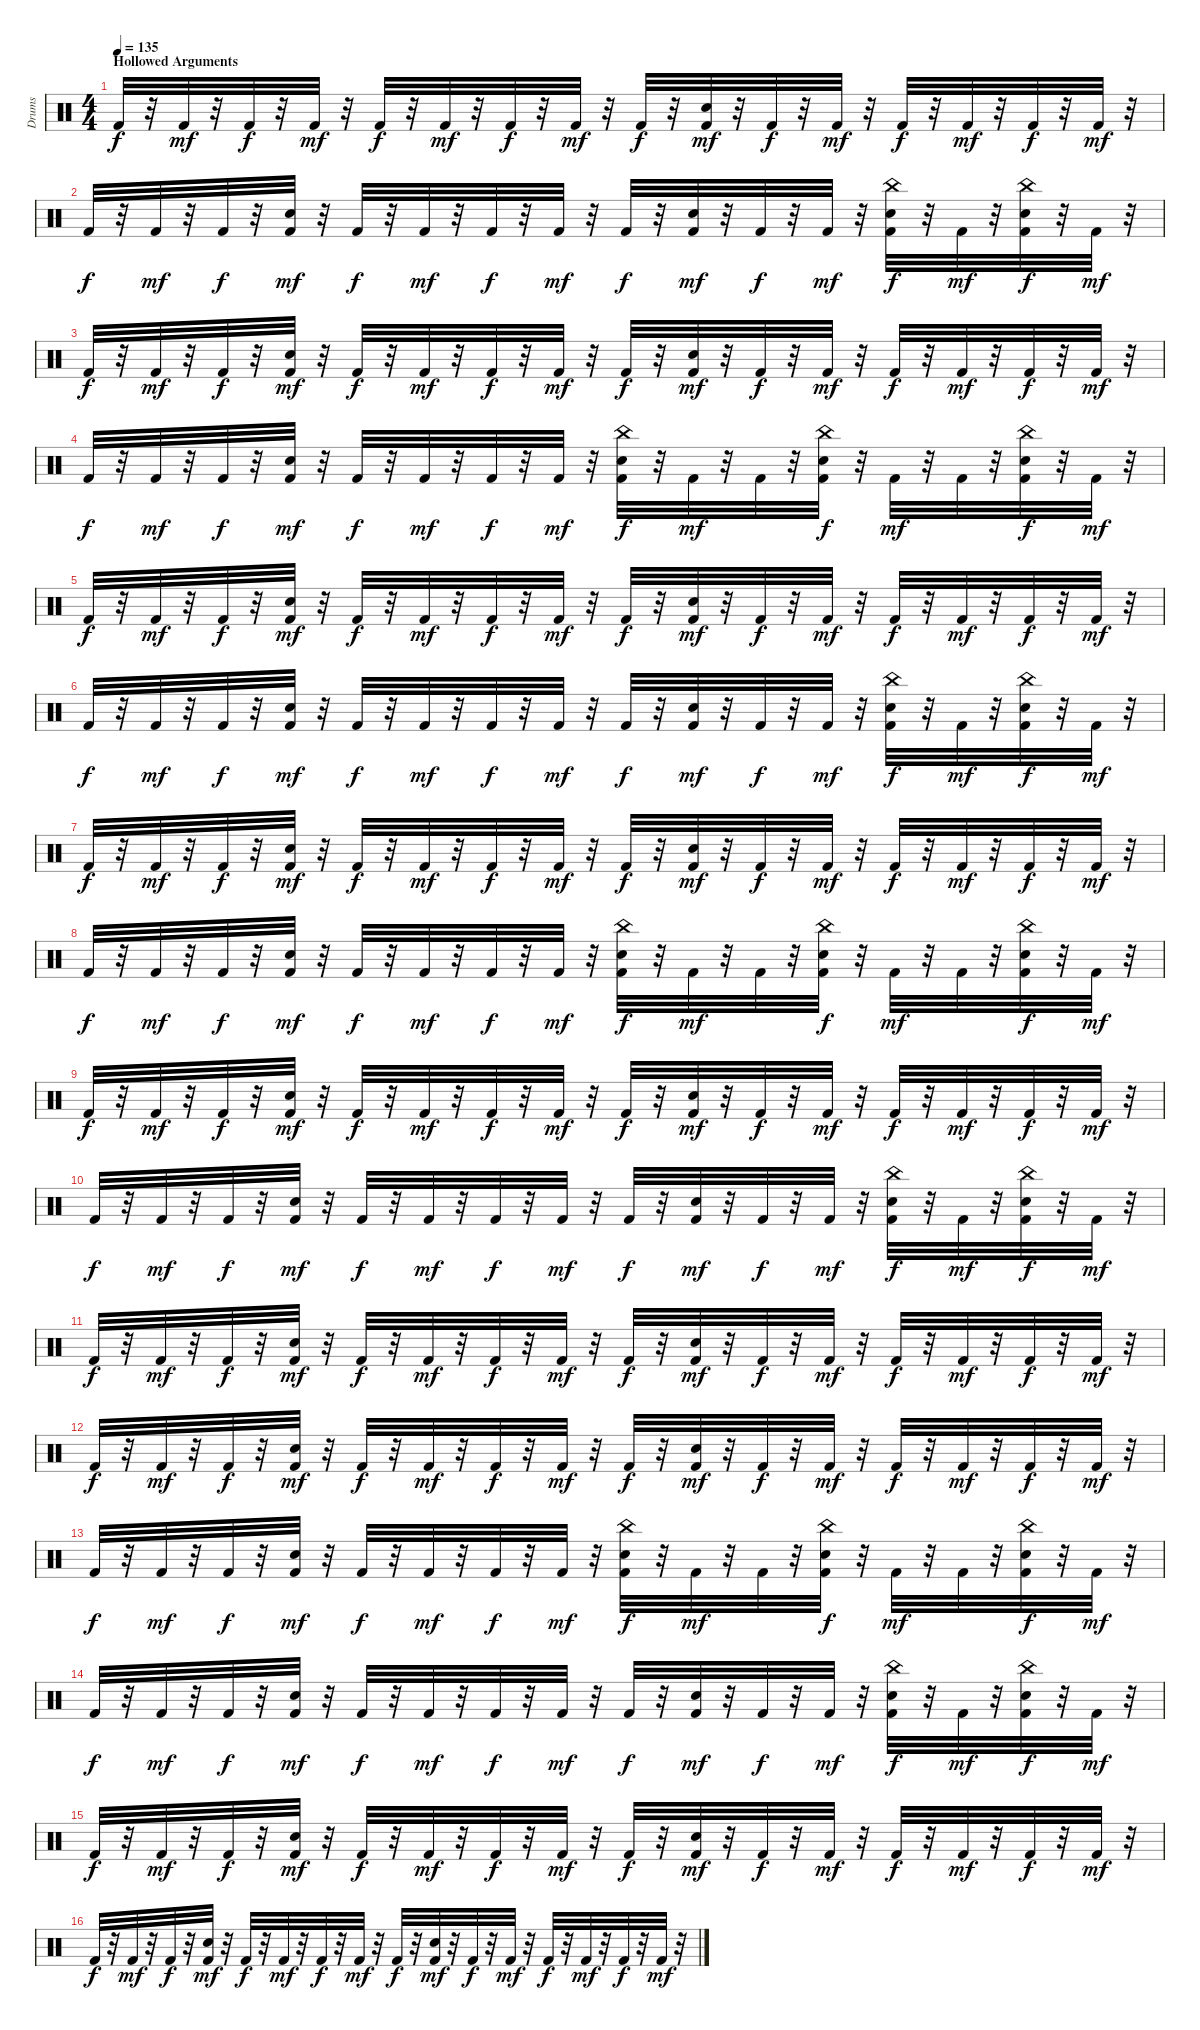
\track ("Drums" "Drums") {instrument percussion}
\staff {score}
\articulation defaults
\ts (4 4)
\section ("" "Hollowed Arguments")
\tempo 135
\clef neutral
\ks c "Kick (hit) 2".32{dy f}
r.32 "Kick (hit) 2".32{dy mf} r.32 "Kick (hit) 2".32{dy f} r.32 "Kick (hit) 2".32{dy mf} r.32 "Kick (hit) 2".32{dy f} r.32 "Kick (hit) 2".32{dy mf} r.32 "Kick (hit) 2".32{dy f} r.32 "Kick (hit) 2".32{dy mf} r.32 "Kick (hit) 2".32{dy f} r.32 ("Snare (hit) 2" "Kick (hit) 2").32{dy mf} r.32 "Kick (hit) 2".32{dy f} r.32 "Kick (hit) 2".32{dy mf} r.32 "Kick (hit) 2".32{dy f} r.32 "Kick (hit) 2".32{dy mf} r.32 "Kick (hit) 2".32{dy f} r.32 "Kick (hit) 2".32{dy mf} r.32 |
"Kick (hit) 2".32{dy f} r.32 "Kick (hit) 2".32{dy mf} r.32 "Kick (hit) 2".32{dy f} r.32 ("Snare (hit) 2" "Kick (hit) 2").32{dy mf} r.32 "Kick (hit) 2".32{dy f} r.32 "Kick (hit) 2".32{dy mf} r.32 "Kick (hit) 2".32{dy f} r.32 "Kick (hit) 2".32{dy mf} r.32 "Kick (hit) 2".32{dy f} r.32 ("Snare (hit) 2" "Kick (hit) 2").32{dy mf} r.32 "Kick (hit) 2".32{dy f} r.32 "Kick (hit) 2".32{dy mf} r.32 ("Kick (hit) 2" "China (hit)" "Snare (hit) 2").32{dy f} r.32 "Kick (hit) 2".32{dy mf} r.32 ("Kick (hit) 2" "China (hit)" "Snare (hit) 2").32{dy f} r.32 "Kick (hit) 2".32{dy mf} r.32 |
"Kick (hit) 2".32{dy f} r.32 "Kick (hit) 2".32{dy mf} r.32 "Kick (hit) 2".32{dy f} r.32 ("Snare (hit) 2" "Kick (hit) 2").32{dy mf} r.32 "Kick (hit) 2".32{dy f} r.32 "Kick (hit) 2".32{dy mf} r.32 "Kick (hit) 2".32{dy f} r.32 "Kick (hit) 2".32{dy mf} r.32 "Kick (hit) 2".32{dy f} r.32 ("Snare (hit) 2" "Kick (hit) 2").32{dy mf} r.32 "Kick (hit) 2".32{dy f} r.32 "Kick (hit) 2".32{dy mf} r.32 "Kick (hit) 2".32{dy f} r.32 "Kick (hit) 2".32{dy mf} r.32 "Kick (hit) 2".32{dy f} r.32 "Kick (hit) 2".32{dy mf} r.32 |
"Kick (hit) 2".32{dy f} r.32 "Kick (hit) 2".32{dy mf} r.32 "Kick (hit) 2".32{dy f} r.32 ("Snare (hit) 2" "Kick (hit) 2").32{dy mf} r.32 "Kick (hit) 2".32{dy f} r.32 "Kick (hit) 2".32{dy mf} r.32 "Kick (hit) 2".32{dy f} r.32 "Kick (hit) 2".32{dy mf} r.32 ("China (hit)" "Kick (hit) 2" "Snare (hit) 2").32{dy f} r.32 "Kick (hit) 2".32{dy mf} r.32 "Kick (hit) 2".32 r.32 ("China (hit)" "Kick (hit) 2" "Snare (hit) 2").32{dy f} r.32 "Kick (hit) 2".32{dy mf} r.32 "Kick (hit) 2".32 r.32 ("China (hit)" "Kick (hit) 2" "Snare (hit) 2").32{dy f} r.32 "Kick (hit) 2".32{dy mf} r.32 |
"Kick (hit) 2".32{dy f} r.32 "Kick (hit) 2".32{dy mf} r.32 "Kick (hit) 2".32{dy f} r.32 ("Snare (hit) 2" "Kick (hit) 2").32{dy mf} r.32 "Kick (hit) 2".32{dy f} r.32 "Kick (hit) 2".32{dy mf} r.32 "Kick (hit) 2".32{dy f} r.32 "Kick (hit) 2".32{dy mf} r.32 "Kick (hit) 2".32{dy f} r.32 ("Snare (hit) 2" "Kick (hit) 2").32{dy mf} r.32 "Kick (hit) 2".32{dy f} r.32 "Kick (hit) 2".32{dy mf} r.32 "Kick (hit) 2".32{dy f} r.32 "Kick (hit) 2".32{dy mf} r.32 "Kick (hit) 2".32{dy f} r.32 "Kick (hit) 2".32{dy mf} r.32 |
"Kick (hit) 2".32{dy f} r.32 "Kick (hit) 2".32{dy mf} r.32 "Kick (hit) 2".32{dy f} r.32 ("Snare (hit) 2" "Kick (hit) 2").32{dy mf} r.32 "Kick (hit) 2".32{dy f} r.32 "Kick (hit) 2".32{dy mf} r.32 "Kick (hit) 2".32{dy f} r.32 "Kick (hit) 2".32{dy mf} r.32 "Kick (hit) 2".32{dy f} r.32 ("Snare (hit) 2" "Kick (hit) 2").32{dy mf} r.32 "Kick (hit) 2".32{dy f} r.32 "Kick (hit) 2".32{dy mf} r.32 ("Kick (hit) 2" "China (hit)" "Snare (hit) 2").32{dy f} r.32 "Kick (hit) 2".32{dy mf} r.32 ("Kick (hit) 2" "China (hit)" "Snare (hit) 2").32{dy f} r.32 "Kick (hit) 2".32{dy mf} r.32 |
"Kick (hit) 2".32{dy f} r.32 "Kick (hit) 2".32{dy mf} r.32 "Kick (hit) 2".32{dy f} r.32 ("Snare (hit) 2" "Kick (hit) 2").32{dy mf} r.32 "Kick (hit) 2".32{dy f} r.32 "Kick (hit) 2".32{dy mf} r.32 "Kick (hit) 2".32{dy f} r.32 "Kick (hit) 2".32{dy mf} r.32 "Kick (hit) 2".32{dy f} r.32 ("Snare (hit) 2" "Kick (hit) 2").32{dy mf} r.32 "Kick (hit) 2".32{dy f} r.32 "Kick (hit) 2".32{dy mf} r.32 "Kick (hit) 2".32{dy f} r.32 "Kick (hit) 2".32{dy mf} r.32 "Kick (hit) 2".32{dy f} r.32 "Kick (hit) 2".32{dy mf} r.32 |
"Kick (hit) 2".32{dy f} r.32 "Kick (hit) 2".32{dy mf} r.32 "Kick (hit) 2".32{dy f} r.32 ("Snare (hit) 2" "Kick (hit) 2").32{dy mf} r.32 "Kick (hit) 2".32{dy f} r.32 "Kick (hit) 2".32{dy mf} r.32 "Kick (hit) 2".32{dy f} r.32 "Kick (hit) 2".32{dy mf} r.32 ("Kick (hit) 2" "Snare (hit) 2" "China (hit)").32{dy f} r.32 "Kick (hit) 2".32{dy mf} r.32 "Kick (hit) 2".32 r.32 ("Kick (hit) 2" "Snare (hit) 2" "China (hit)").32{dy f} r.32 "Kick (hit) 2".32{dy mf} r.32 "Kick (hit) 2".32 r.32 ("Kick (hit) 2" "Snare (hit) 2" "China (hit)").32{dy f} r.32 "Kick (hit) 2".32{dy mf} r.32 |
"Kick (hit) 2".32{dy f} r.32 "Kick (hit) 2".32{dy mf} r.32 "Kick (hit) 2".32{dy f} r.32 ("Snare (hit) 2" "Kick (hit) 2").32{dy mf} r.32 "Kick (hit) 2".32{dy f} r.32 "Kick (hit) 2".32{dy mf} r.32 "Kick (hit) 2".32{dy f} r.32 "Kick (hit) 2".32{dy mf} r.32 "Kick (hit) 2".32{dy f} r.32 ("Snare (hit) 2" "Kick (hit) 2").32{dy mf} r.32 "Kick (hit) 2".32{dy f} r.32 "Kick (hit) 2".32{dy mf} r.32 "Kick (hit) 2".32{dy f} r.32 "Kick (hit) 2".32{dy mf} r.32 "Kick (hit) 2".32{dy f} r.32 "Kick (hit) 2".32{dy mf} r.32 |
"Kick (hit) 2".32{dy f} r.32 "Kick (hit) 2".32{dy mf} r.32 "Kick (hit) 2".32{dy f} r.32 ("Snare (hit) 2" "Kick (hit) 2").32{dy mf} r.32 "Kick (hit) 2".32{dy f} r.32 "Kick (hit) 2".32{dy mf} r.32 "Kick (hit) 2".32{dy f} r.32 "Kick (hit) 2".32{dy mf} r.32 "Kick (hit) 2".32{dy f} r.32 ("Snare (hit) 2" "Kick (hit) 2").32{dy mf} r.32 "Kick (hit) 2".32{dy f} r.32 "Kick (hit) 2".32{dy mf} r.32 ("Kick (hit) 2" "China (hit)" "Snare (hit) 2").32{dy f} r.32 "Kick (hit) 2".32{dy mf} r.32 ("Kick (hit) 2" "China (hit)" "Snare (hit) 2").32{dy f} r.32 "Kick (hit) 2".32{dy mf} r.32 |
"Kick (hit) 2".32{dy f} r.32 "Kick (hit) 2".32{dy mf} r.32 "Kick (hit) 2".32{dy f} r.32 ("Snare (hit) 2" "Kick (hit) 2").32{dy mf} r.32 "Kick (hit) 2".32{dy f} r.32 "Kick (hit) 2".32{dy mf} r.32 "Kick (hit) 2".32{dy f} r.32 "Kick (hit) 2".32{dy mf} r.32 "Kick (hit) 2".32{dy f} r.32 ("Snare (hit) 2" "Kick (hit) 2").32{dy mf} r.32 "Kick (hit) 2".32{dy f} r.32 "Kick (hit) 2".32{dy mf} r.32 "Kick (hit) 2".32{dy f} r.32 "Kick (hit) 2".32{dy mf} r.32 "Kick (hit) 2".32{dy f} r.32 "Kick (hit) 2".32{dy mf} r.32 |
"Kick (hit) 2".32{dy f} r.32 "Kick (hit) 2".32{dy mf} r.32 "Kick (hit) 2".32{dy f} r.32 ("Snare (hit) 2" "Kick (hit) 2").32{dy mf} r.32 "Kick (hit) 2".32{dy f} r.32 "Kick (hit) 2".32{dy mf} r.32 "Kick (hit) 2".32{dy f} r.32 "Kick (hit) 2".32{dy mf} r.32 "Kick (hit) 2".32{dy f} r.32 ("Snare (hit) 2" "Kick (hit) 2").32{dy mf} r.32 "Kick (hit) 2".32{dy f} r.32 "Kick (hit) 2".32{dy mf} r.32 "Kick (hit) 2".32{dy f} r.32 "Kick (hit) 2".32{dy mf} r.32 "Kick (hit) 2".32{dy f} r.32 "Kick (hit) 2".32{dy mf} r.32 |
"Kick (hit) 2".32{dy f} r.32 "Kick (hit) 2".32{dy mf} r.32 "Kick (hit) 2".32{dy f} r.32 ("Snare (hit) 2" "Kick (hit) 2").32{dy mf} r.32 "Kick (hit) 2".32{dy f} r.32 "Kick (hit) 2".32{dy mf} r.32 "Kick (hit) 2".32{dy f} r.32 "Kick (hit) 2".32{dy mf} r.32 ("Kick (hit) 2" "Snare (hit) 2" "China (hit)").32{dy f} r.32 "Kick (hit) 2".32{dy mf} r.32 "Kick (hit) 2".32 r.32 ("Kick (hit) 2" "Snare (hit) 2" "China (hit)").32{dy f} r.32 "Kick (hit) 2".32{dy mf} r.32 "Kick (hit) 2".32 r.32 ("Kick (hit) 2" "Snare (hit) 2" "China (hit)").32{dy f} r.32 "Kick (hit) 2".32{dy mf} r.32 |
"Kick (hit) 2".32{dy f} r.32 "Kick (hit) 2".32{dy mf} r.32 "Kick (hit) 2".32{dy f} r.32 ("Snare (hit) 2" "Kick (hit) 2").32{dy mf} r.32 "Kick (hit) 2".32{dy f} r.32 "Kick (hit) 2".32{dy mf} r.32 "Kick (hit) 2".32{dy f} r.32 "Kick (hit) 2".32{dy mf} r.32 "Kick (hit) 2".32{dy f} r.32 ("Snare (hit) 2" "Kick (hit) 2").32{dy mf} r.32 "Kick (hit) 2".32{dy f} r.32 "Kick (hit) 2".32{dy mf} r.32 ("Kick (hit) 2" "China (hit)" "Snare (hit) 2").32{dy f} r.32 "Kick (hit) 2".32{dy mf} r.32 ("Kick (hit) 2" "China (hit)" "Snare (hit) 2").32{dy f} r.32 "Kick (hit) 2".32{dy mf} r.32 |
"Kick (hit) 2".32{dy f} r.32 "Kick (hit) 2".32{dy mf} r.32 "Kick (hit) 2".32{dy f} r.32 ("Snare (hit) 2" "Kick (hit) 2").32{dy mf} r.32 "Kick (hit) 2".32{dy f} r.32 "Kick (hit) 2".32{dy mf} r.32 "Kick (hit) 2".32{dy f} r.32 "Kick (hit) 2".32{dy mf} r.32 "Kick (hit) 2".32{dy f} r.32 ("Snare (hit) 2" "Kick (hit) 2").32{dy mf} r.32 "Kick (hit) 2".32{dy f} r.32 "Kick (hit) 2".32{dy mf} r.32 "Kick (hit) 2".32{dy f} r.32 "Kick (hit) 2".32{dy mf} r.32 "Kick (hit) 2".32{dy f} r.32 "Kick (hit) 2".32{dy mf} r.32 |
"Kick (hit) 2".32{dy f} r.32 "Kick (hit) 2".32{dy mf} r.32 "Kick (hit) 2".32{dy f} r.32 ("Snare (hit) 2" "Kick (hit) 2").32{dy mf} r.32 "Kick (hit) 2".32{dy f} r.32 "Kick (hit) 2".32{dy mf} r.32 "Kick (hit) 2".32{dy f} r.32 "Kick (hit) 2".32{dy mf} r.32 "Kick (hit) 2".32{dy f} r.32 ("Snare (hit) 2" "Kick (hit) 2").32{dy mf} r.32 "Kick (hit) 2".32{dy f} r.32 "Kick (hit) 2".32{dy mf} r.32 "Kick (hit) 2".32{dy f} r.32 "Kick (hit) 2".32{dy mf} r.32 "Kick (hit) 2".32{dy f} r.32 "Kick (hit) 2".32{dy mf} r.32
